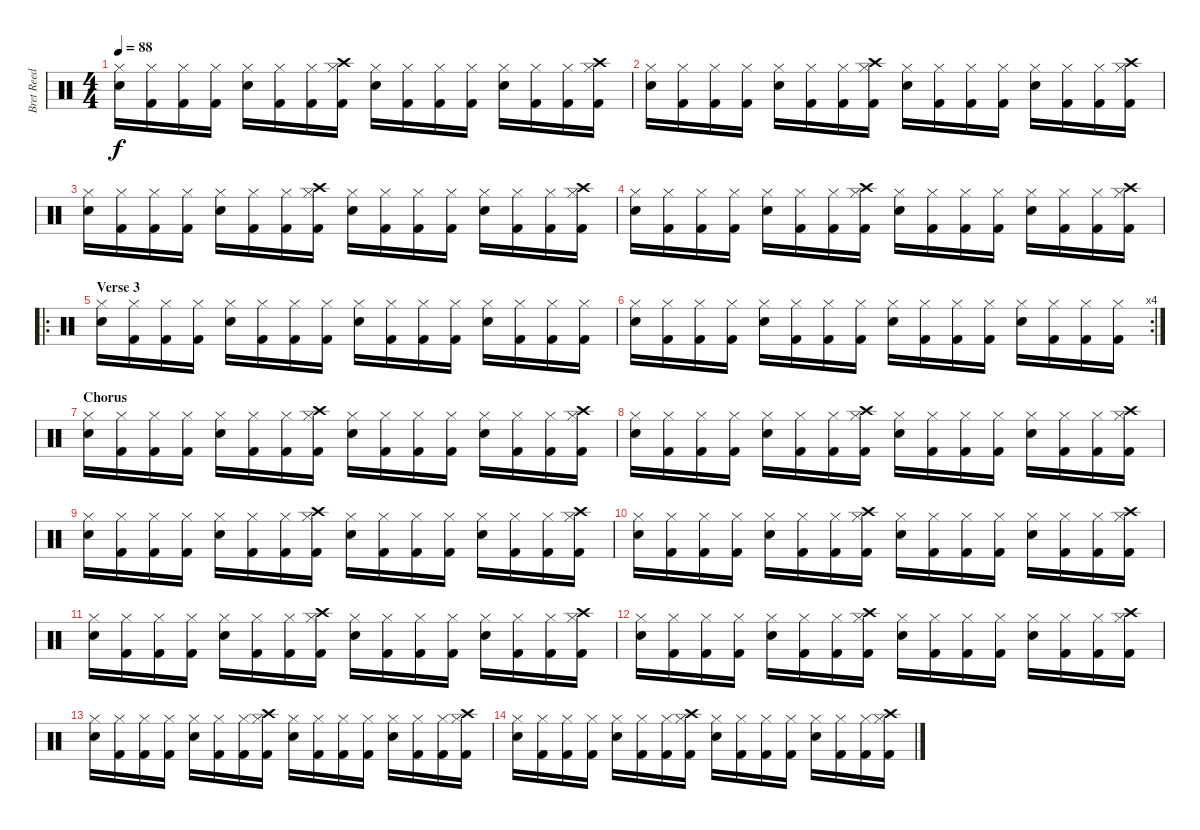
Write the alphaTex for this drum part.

\track ("Bret Reed" "Bret Reed") {instrument percussion}
\staff {score}
\articulation defaults
\ts (4 4)
\tempo 88
\clef neutral
\ks c
("Electric Snare (hit)" "Hi-Hat (closed)").16{dy f} ("Kick (hit) 2" "Hi-Hat (closed)").16 ("Kick (hit) 2" "Hi-Hat (closed)").16 ("Kick (hit) 2" "Hi-Hat (closed)").16 ("Electric Snare (hit)" "Hi-Hat (closed)").16 ("Kick (hit) 2" "Hi-Hat (closed)").16 ("Kick (hit) 2" "Hi-Hat (closed)").16 ("Crash high (hit)" "Kick (hit) 2" "Hi-Hat (closed)").16 ("Electric Snare (hit)" "Hi-Hat (closed)").16 ("Kick (hit) 2" "Hi-Hat (closed)").16 ("Kick (hit) 2" "Hi-Hat (closed)").16 ("Kick (hit) 2" "Hi-Hat (closed)").16 ("Electric Snare (hit)" "Hi-Hat (closed)").16 ("Kick (hit) 2" "Hi-Hat (closed)").16 ("Kick (hit) 2" "Hi-Hat (closed)").16 ("Crash high (hit)" "Kick (hit) 2" "Hi-Hat (closed)").16 |
("Electric Snare (hit)" "Hi-Hat (closed)").16 ("Kick (hit) 2" "Hi-Hat (closed)").16 ("Kick (hit) 2" "Hi-Hat (closed)").16 ("Kick (hit) 2" "Hi-Hat (closed)").16 ("Electric Snare (hit)" "Hi-Hat (closed)").16 ("Kick (hit) 2" "Hi-Hat (closed)").16 ("Kick (hit) 2" "Hi-Hat (closed)").16 ("Crash high (hit)" "Kick (hit) 2" "Hi-Hat (closed)").16 ("Electric Snare (hit)" "Hi-Hat (closed)").16 ("Kick (hit) 2" "Hi-Hat (closed)").16 ("Kick (hit) 2" "Hi-Hat (closed)").16 ("Kick (hit) 2" "Hi-Hat (closed)").16 ("Electric Snare (hit)" "Hi-Hat (closed)").16 ("Kick (hit) 2" "Hi-Hat (closed)").16 ("Kick (hit) 2" "Hi-Hat (closed)").16 ("Crash high (hit)" "Kick (hit) 2" "Hi-Hat (closed)").16 |
("Electric Snare (hit)" "Hi-Hat (closed)").16 ("Kick (hit) 2" "Hi-Hat (closed)").16 ("Kick (hit) 2" "Hi-Hat (closed)").16 ("Kick (hit) 2" "Hi-Hat (closed)").16 ("Electric Snare (hit)" "Hi-Hat (closed)").16 ("Kick (hit) 2" "Hi-Hat (closed)").16 ("Kick (hit) 2" "Hi-Hat (closed)").16 ("Crash high (hit)" "Kick (hit) 2" "Hi-Hat (closed)").16 ("Electric Snare (hit)" "Hi-Hat (closed)").16 ("Kick (hit) 2" "Hi-Hat (closed)").16 ("Kick (hit) 2" "Hi-Hat (closed)").16 ("Kick (hit) 2" "Hi-Hat (closed)").16 ("Electric Snare (hit)" "Hi-Hat (closed)").16 ("Kick (hit) 2" "Hi-Hat (closed)").16 ("Kick (hit) 2" "Hi-Hat (closed)").16 ("Crash high (hit)" "Kick (hit) 2" "Hi-Hat (closed)").16 |
("Electric Snare (hit)" "Hi-Hat (closed)").16 ("Kick (hit) 2" "Hi-Hat (closed)").16 ("Kick (hit) 2" "Hi-Hat (closed)").16 ("Kick (hit) 2" "Hi-Hat (closed)").16 ("Electric Snare (hit)" "Hi-Hat (closed)").16 ("Kick (hit) 2" "Hi-Hat (closed)").16 ("Kick (hit) 2" "Hi-Hat (closed)").16 ("Crash high (hit)" "Kick (hit) 2" "Hi-Hat (closed)").16 ("Electric Snare (hit)" "Hi-Hat (closed)").16 ("Kick (hit) 2" "Hi-Hat (closed)").16 ("Kick (hit) 2" "Hi-Hat (closed)").16 ("Kick (hit) 2" "Hi-Hat (closed)").16 ("Electric Snare (hit)" "Hi-Hat (closed)").16 ("Kick (hit) 2" "Hi-Hat (closed)").16 ("Kick (hit) 2" "Hi-Hat (closed)").16 ("Crash high (hit)" "Kick (hit) 2" "Hi-Hat (closed)").16 |
\ro
\section ("" "Verse 3")
("Electric Snare (hit)" "Hi-Hat (closed)").16 ("Kick (hit) 2" "Hi-Hat (closed)").16 ("Kick (hit) 2" "Hi-Hat (closed)").16 ("Kick (hit) 2" "Hi-Hat (closed)").16 ("Electric Snare (hit)" "Hi-Hat (closed)").16 ("Kick (hit) 2" "Hi-Hat (closed)").16 ("Kick (hit) 2" "Hi-Hat (closed)").16 ("Kick (hit) 2" "Hi-Hat (closed)").16 ("Electric Snare (hit)" "Hi-Hat (closed)").16 ("Kick (hit) 2" "Hi-Hat (closed)").16 ("Kick (hit) 2" "Hi-Hat (closed)").16 ("Kick (hit) 2" "Hi-Hat (closed)").16 ("Electric Snare (hit)" "Hi-Hat (closed)").16 ("Kick (hit) 2" "Hi-Hat (closed)").16 ("Kick (hit) 2" "Hi-Hat (closed)").16 ("Kick (hit) 2" "Hi-Hat (closed)").16 |
\rc 4
("Electric Snare (hit)" "Hi-Hat (closed)").16 ("Kick (hit) 2" "Hi-Hat (closed)").16 ("Kick (hit) 2" "Hi-Hat (closed)").16 ("Kick (hit) 2" "Hi-Hat (closed)").16 ("Electric Snare (hit)" "Hi-Hat (closed)").16 ("Kick (hit) 2" "Hi-Hat (closed)").16 ("Kick (hit) 2" "Hi-Hat (closed)").16 ("Kick (hit) 2" "Hi-Hat (closed)").16 ("Electric Snare (hit)" "Hi-Hat (closed)").16 ("Kick (hit) 2" "Hi-Hat (closed)").16 ("Kick (hit) 2" "Hi-Hat (closed)").16 ("Kick (hit) 2" "Hi-Hat (closed)").16 ("Electric Snare (hit)" "Hi-Hat (closed)").16 ("Kick (hit) 2" "Hi-Hat (closed)").16 ("Kick (hit) 2" "Hi-Hat (closed)").16 ("Kick (hit) 2" "Hi-Hat (closed)").16 |
\section ("" "Chorus")
("Electric Snare (hit)" "Hi-Hat (closed)").16 ("Kick (hit) 2" "Hi-Hat (closed)").16 ("Kick (hit) 2" "Hi-Hat (closed)").16 ("Kick (hit) 2" "Hi-Hat (closed)").16 ("Electric Snare (hit)" "Hi-Hat (closed)").16 ("Kick (hit) 2" "Hi-Hat (closed)").16 ("Kick (hit) 2" "Hi-Hat (closed)").16 ("Crash high (hit)" "Kick (hit) 2" "Hi-Hat (closed)").16 ("Electric Snare (hit)" "Hi-Hat (closed)").16 ("Kick (hit) 2" "Hi-Hat (closed)").16 ("Kick (hit) 2" "Hi-Hat (closed)").16 ("Kick (hit) 2" "Hi-Hat (closed)").16 ("Electric Snare (hit)" "Hi-Hat (closed)").16 ("Kick (hit) 2" "Hi-Hat (closed)").16 ("Kick (hit) 2" "Hi-Hat (closed)").16 ("Crash high (hit)" "Kick (hit) 2" "Hi-Hat (closed)").16 |
("Electric Snare (hit)" "Hi-Hat (closed)").16 ("Kick (hit) 2" "Hi-Hat (closed)").16 ("Kick (hit) 2" "Hi-Hat (closed)").16 ("Kick (hit) 2" "Hi-Hat (closed)").16 ("Electric Snare (hit)" "Hi-Hat (closed)").16 ("Kick (hit) 2" "Hi-Hat (closed)").16 ("Kick (hit) 2" "Hi-Hat (closed)").16 ("Crash high (hit)" "Kick (hit) 2" "Hi-Hat (closed)").16 ("Electric Snare (hit)" "Hi-Hat (closed)").16 ("Kick (hit) 2" "Hi-Hat (closed)").16 ("Kick (hit) 2" "Hi-Hat (closed)").16 ("Kick (hit) 2" "Hi-Hat (closed)").16 ("Electric Snare (hit)" "Hi-Hat (closed)").16 ("Kick (hit) 2" "Hi-Hat (closed)").16 ("Kick (hit) 2" "Hi-Hat (closed)").16 ("Crash high (hit)" "Kick (hit) 2" "Hi-Hat (closed)").16 |
("Electric Snare (hit)" "Hi-Hat (closed)").16 ("Kick (hit) 2" "Hi-Hat (closed)").16 ("Kick (hit) 2" "Hi-Hat (closed)").16 ("Kick (hit) 2" "Hi-Hat (closed)").16 ("Electric Snare (hit)" "Hi-Hat (closed)").16 ("Kick (hit) 2" "Hi-Hat (closed)").16 ("Kick (hit) 2" "Hi-Hat (closed)").16 ("Crash high (hit)" "Kick (hit) 2" "Hi-Hat (closed)").16 ("Electric Snare (hit)" "Hi-Hat (closed)").16 ("Kick (hit) 2" "Hi-Hat (closed)").16 ("Kick (hit) 2" "Hi-Hat (closed)").16 ("Kick (hit) 2" "Hi-Hat (closed)").16 ("Electric Snare (hit)" "Hi-Hat (closed)").16 ("Kick (hit) 2" "Hi-Hat (closed)").16 ("Kick (hit) 2" "Hi-Hat (closed)").16 ("Crash high (hit)" "Kick (hit) 2" "Hi-Hat (closed)").16 |
("Electric Snare (hit)" "Hi-Hat (closed)").16 ("Kick (hit) 2" "Hi-Hat (closed)").16 ("Kick (hit) 2" "Hi-Hat (closed)").16 ("Kick (hit) 2" "Hi-Hat (closed)").16 ("Electric Snare (hit)" "Hi-Hat (closed)").16 ("Kick (hit) 2" "Hi-Hat (closed)").16 ("Kick (hit) 2" "Hi-Hat (closed)").16 ("Crash high (hit)" "Kick (hit) 2" "Hi-Hat (closed)").16 ("Electric Snare (hit)" "Hi-Hat (closed)").16 ("Kick (hit) 2" "Hi-Hat (closed)").16 ("Kick (hit) 2" "Hi-Hat (closed)").16 ("Kick (hit) 2" "Hi-Hat (closed)").16 ("Electric Snare (hit)" "Hi-Hat (closed)").16 ("Kick (hit) 2" "Hi-Hat (closed)").16 ("Kick (hit) 2" "Hi-Hat (closed)").16 ("Crash high (hit)" "Kick (hit) 2" "Hi-Hat (closed)").16 |
("Electric Snare (hit)" "Hi-Hat (closed)").16 ("Kick (hit) 2" "Hi-Hat (closed)").16 ("Kick (hit) 2" "Hi-Hat (closed)").16 ("Kick (hit) 2" "Hi-Hat (closed)").16 ("Electric Snare (hit)" "Hi-Hat (closed)").16 ("Kick (hit) 2" "Hi-Hat (closed)").16 ("Kick (hit) 2" "Hi-Hat (closed)").16 ("Crash high (hit)" "Kick (hit) 2" "Hi-Hat (closed)").16 ("Electric Snare (hit)" "Hi-Hat (closed)").16 ("Kick (hit) 2" "Hi-Hat (closed)").16 ("Kick (hit) 2" "Hi-Hat (closed)").16 ("Kick (hit) 2" "Hi-Hat (closed)").16 ("Electric Snare (hit)" "Hi-Hat (closed)").16 ("Kick (hit) 2" "Hi-Hat (closed)").16 ("Kick (hit) 2" "Hi-Hat (closed)").16 ("Crash high (hit)" "Kick (hit) 2" "Hi-Hat (closed)").16 |
("Electric Snare (hit)" "Hi-Hat (closed)").16 ("Kick (hit) 2" "Hi-Hat (closed)").16 ("Kick (hit) 2" "Hi-Hat (closed)").16 ("Kick (hit) 2" "Hi-Hat (closed)").16 ("Electric Snare (hit)" "Hi-Hat (closed)").16 ("Kick (hit) 2" "Hi-Hat (closed)").16 ("Kick (hit) 2" "Hi-Hat (closed)").16 ("Crash high (hit)" "Kick (hit) 2" "Hi-Hat (closed)").16 ("Electric Snare (hit)" "Hi-Hat (closed)").16 ("Kick (hit) 2" "Hi-Hat (closed)").16 ("Kick (hit) 2" "Hi-Hat (closed)").16 ("Kick (hit) 2" "Hi-Hat (closed)").16 ("Electric Snare (hit)" "Hi-Hat (closed)").16 ("Kick (hit) 2" "Hi-Hat (closed)").16 ("Kick (hit) 2" "Hi-Hat (closed)").16 ("Crash high (hit)" "Kick (hit) 2" "Hi-Hat (closed)").16 |
("Electric Snare (hit)" "Hi-Hat (closed)").16 ("Kick (hit) 2" "Hi-Hat (closed)").16 ("Kick (hit) 2" "Hi-Hat (closed)").16 ("Kick (hit) 2" "Hi-Hat (closed)").16 ("Electric Snare (hit)" "Hi-Hat (closed)").16 ("Kick (hit) 2" "Hi-Hat (closed)").16 ("Kick (hit) 2" "Hi-Hat (closed)").16 ("Crash high (hit)" "Kick (hit) 2" "Hi-Hat (closed)").16 ("Electric Snare (hit)" "Hi-Hat (closed)").16 ("Kick (hit) 2" "Hi-Hat (closed)").16 ("Kick (hit) 2" "Hi-Hat (closed)").16 ("Kick (hit) 2" "Hi-Hat (closed)").16 ("Electric Snare (hit)" "Hi-Hat (closed)").16 ("Kick (hit) 2" "Hi-Hat (closed)").16 ("Kick (hit) 2" "Hi-Hat (closed)").16 ("Crash high (hit)" "Kick (hit) 2" "Hi-Hat (closed)").16 |
("Electric Snare (hit)" "Hi-Hat (closed)").16 ("Kick (hit) 2" "Hi-Hat (closed)").16 ("Kick (hit) 2" "Hi-Hat (closed)").16 ("Kick (hit) 2" "Hi-Hat (closed)").16 ("Electric Snare (hit)" "Hi-Hat (closed)").16 ("Kick (hit) 2" "Hi-Hat (closed)").16 ("Kick (hit) 2" "Hi-Hat (closed)").16 ("Crash high (hit)" "Kick (hit) 2" "Hi-Hat (closed)").16 ("Electric Snare (hit)" "Hi-Hat (closed)").16 ("Kick (hit) 2" "Hi-Hat (closed)").16 ("Kick (hit) 2" "Hi-Hat (closed)").16 ("Kick (hit) 2" "Hi-Hat (closed)").16 ("Electric Snare (hit)" "Hi-Hat (closed)").16 ("Kick (hit) 2" "Hi-Hat (closed)").16 ("Kick (hit) 2" "Hi-Hat (closed)").16 ("Crash high (hit)" "Kick (hit) 2" "Hi-Hat (closed)").16
